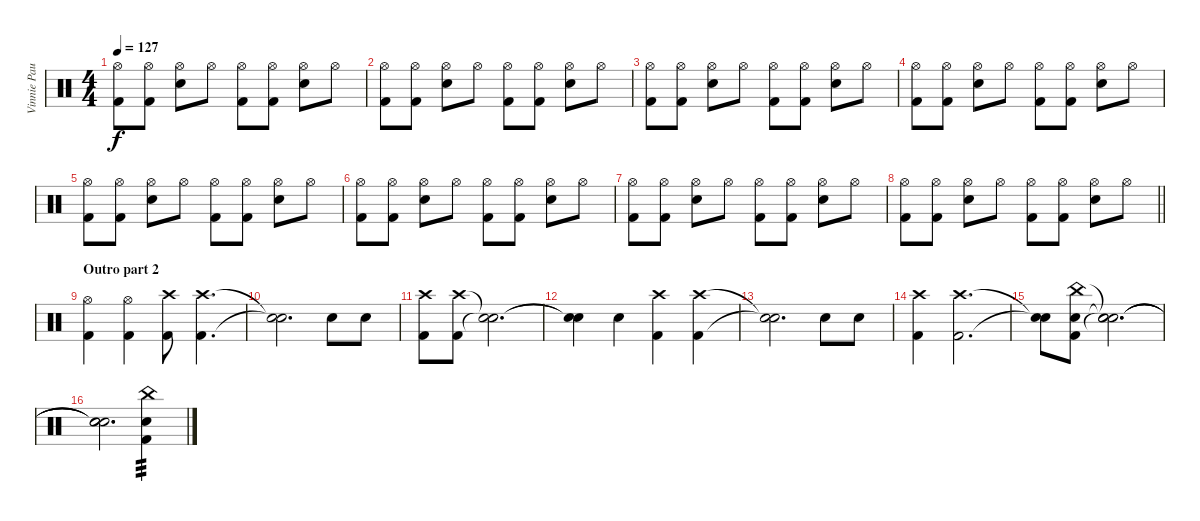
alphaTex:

\track ("Vinnie Paul" "Vinnie Pau") {instrument percussion}
\staff {score}
\articulation defaults
\ts (4 4)
\tempo 127
\clef neutral
\ks c
("Kick (hit) 2" "Hi-Hat (open)").8{dy f} ("Kick (hit) 2" "Hi-Hat (open)").8 ("Snare (hit) 2" "Hi-Hat (open)").8 "Hi-Hat (open)".8 ("Kick (hit) 2" "Hi-Hat (open)").8 ("Kick (hit) 2" "Hi-Hat (open)").8 ("Snare (hit) 2" "Hi-Hat (open)").8 "Hi-Hat (open)".8 |
("Kick (hit) 2" "Hi-Hat (open)").8 ("Kick (hit) 2" "Hi-Hat (open)").8 ("Snare (hit) 2" "Hi-Hat (open)").8 "Hi-Hat (open)".8 ("Kick (hit) 2" "Hi-Hat (open)").8 ("Kick (hit) 2" "Hi-Hat (open)").8 ("Snare (hit) 2" "Hi-Hat (open)").8 "Hi-Hat (open)".8 |
("Kick (hit) 2" "Hi-Hat (open)").8 ("Kick (hit) 2" "Hi-Hat (open)").8 ("Snare (hit) 2" "Hi-Hat (open)").8 "Hi-Hat (open)".8 ("Kick (hit) 2" "Hi-Hat (open)").8 ("Kick (hit) 2" "Hi-Hat (open)").8 ("Snare (hit) 2" "Hi-Hat (open)").8 "Hi-Hat (open)".8 |
("Kick (hit) 2" "Hi-Hat (open)").8 ("Kick (hit) 2" "Hi-Hat (open)").8 ("Snare (hit) 2" "Hi-Hat (open)").8 "Hi-Hat (open)".8 ("Kick (hit) 2" "Hi-Hat (open)").8 ("Kick (hit) 2" "Hi-Hat (open)").8 ("Snare (hit) 2" "Hi-Hat (open)").8 "Hi-Hat (open)".8 |
("Kick (hit) 2" "Hi-Hat (open)").8 ("Kick (hit) 2" "Hi-Hat (open)").8 ("Snare (hit) 2" "Hi-Hat (open)").8 "Hi-Hat (open)".8 ("Kick (hit) 2" "Hi-Hat (open)").8 ("Kick (hit) 2" "Hi-Hat (open)").8 ("Snare (hit) 2" "Hi-Hat (open)").8 "Hi-Hat (open)".8 |
("Kick (hit) 2" "Hi-Hat (open)").8 ("Kick (hit) 2" "Hi-Hat (open)").8 ("Snare (hit) 2" "Hi-Hat (open)").8 "Hi-Hat (open)".8 ("Kick (hit) 2" "Hi-Hat (open)").8 ("Kick (hit) 2" "Hi-Hat (open)").8 ("Snare (hit) 2" "Hi-Hat (open)").8 "Hi-Hat (open)".8 |
("Kick (hit) 2" "Hi-Hat (open)").8 ("Kick (hit) 2" "Hi-Hat (open)").8 ("Snare (hit) 2" "Hi-Hat (open)").8 "Hi-Hat (open)".8 ("Kick (hit) 2" "Hi-Hat (open)").8 ("Kick (hit) 2" "Hi-Hat (open)").8 ("Snare (hit) 2" "Hi-Hat (open)").8 "Hi-Hat (open)".8 |
\barLineRight lightlight
("Kick (hit) 2" "Hi-Hat (open)").8 ("Kick (hit) 2" "Hi-Hat (open)").8 ("Snare (hit) 2" "Hi-Hat (open)").8 "Hi-Hat (open)".8 ("Kick (hit) 2" "Hi-Hat (open)").8 ("Kick (hit) 2" "Hi-Hat (open)").8 ("Snare (hit) 2" "Hi-Hat (open)").8 "Hi-Hat (open)".8 |
\section ("" "Outro part 2")
("Kick (hit) 2" "Hi-Hat (open)").4 ("Kick (hit) 2" "Hi-Hat (open)").4 ("Kick (hit) 2" "Crash high (hit)").8 ("Kick (hit) 2" "Crash high (hit)").4{d} |
("Snare (hit)"{t} "Snare (hit)"{t}).2{d} "Snare (hit) 2".8 "Snare (hit) 2".8 |
("Kick (hit) 2" "Crash high (hit)").8 ("Kick (hit) 2" "Crash high (hit)").8 ("Snare (hit)"{t} "Snare (hit)"{t}).2{d} |
("Snare (hit)"{t} "Snare (hit)"{t}).4 "Snare (hit) 2".4 ("Kick (hit) 2" "Crash high (hit)").4 ("Kick (hit) 2" "Crash high (hit)").4 |
("Snare (hit)"{t} "Snare (hit)"{t}).2{d} "Snare (hit) 2".8 "Snare (hit) 2".8 |
("Kick (hit) 2" "Crash high (hit)").4 ("Kick (hit) 2" "Crash high (hit)").2{d} |
("Snare (hit)"{t} "Snare (hit)"{t}).8 ("Kick (hit) 2" "Snare (hit) 2" "China (hit)").8 ("Snare (hit)"{t} "Snare (hit)"{t} "Snare (hit)"{t}).2{d} |
("Snare (hit)"{t} "Snare (hit)"{t} "Snare (hit)"{t}).2{d} ("Kick (hit) 2" "Snare (hit) 2" "China (hit)").4{tp 3}
